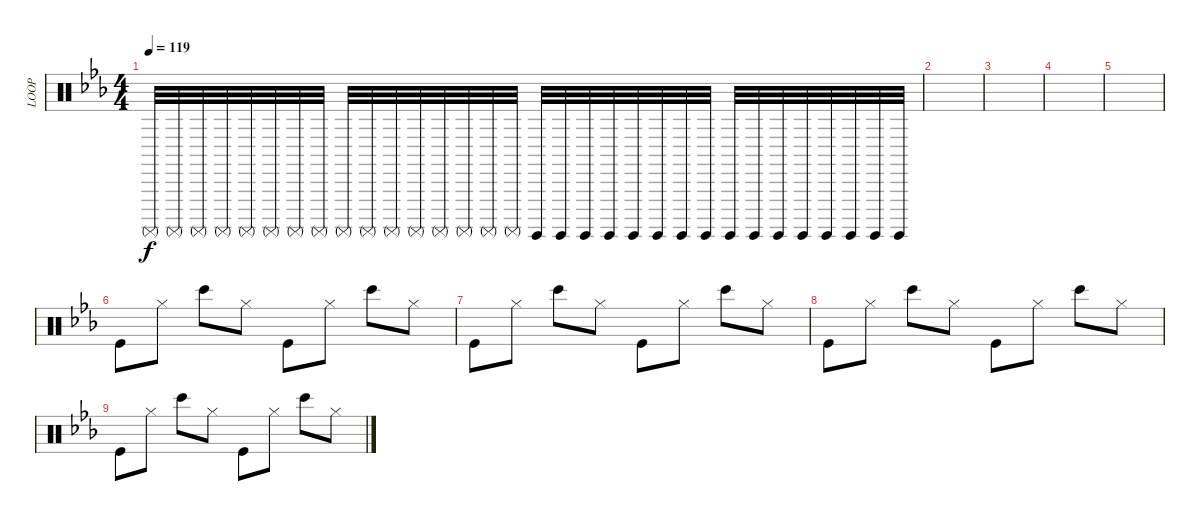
\track ("LOOP" "LOOP") {instrument percussion}
\staff {score}
\articulation defaults
\ts (4 4)
\tempo 119
\clef neutral
\ks eb "Surdo (mute)".32{dy f volume 11} "Surdo (mute)".32 "Surdo (mute)".32 "Surdo (mute)".32 "Surdo (mute)".32 "Surdo (mute)".32 "Surdo (mute)".32 "Surdo (mute)".32 "Surdo (mute)".32 "Surdo (mute)".32 "Surdo (mute)".32 "Surdo (mute)".32 "Surdo (mute)".32 "Surdo (mute)".32 "Surdo (mute)".32 "Surdo (mute)".32 "Surdo (hit)".32{volume 11} "Surdo (hit)".32 "Surdo (hit)".32 "Surdo (hit)".32 "Surdo (hit)".32 "Surdo (hit)".32 "Surdo (hit)".32 "Surdo (hit)".32 "Surdo (hit)".32 "Surdo (hit)".32 "Surdo (hit)".32 "Surdo (hit)".32 "Surdo (hit)".32 "Surdo (hit)".32 "Surdo (hit)".32 "Surdo (hit)".32
|
|
|
|
|
"Kick (hit)".8{volume 11} "Hi-Hat (closed)".8 "Bongo High (hit)".8 "Hi-Hat (closed)".8 "Kick (hit)".8 "Hi-Hat (closed)".8 "Bongo High (hit)".8 "Hi-Hat (closed)".8 |
"Kick (hit)".8 "Hi-Hat (closed)".8 "Bongo High (hit)".8 "Hi-Hat (closed)".8 "Kick (hit)".8 "Hi-Hat (closed)".8 "Bongo High (hit)".8 "Hi-Hat (closed)".8 |
"Kick (hit)".8 "Hi-Hat (closed)".8 "Bongo High (hit)".8 "Hi-Hat (closed)".8 "Kick (hit)".8 "Hi-Hat (closed)".8 "Bongo High (hit)".8 "Hi-Hat (closed)".8 |
"Kick (hit)".8 "Hi-Hat (closed)".8 "Bongo High (hit)".8 "Hi-Hat (closed)".8 "Kick (hit)".8 "Hi-Hat (closed)".8 "Bongo High (hit)".8 "Hi-Hat (closed)".8
